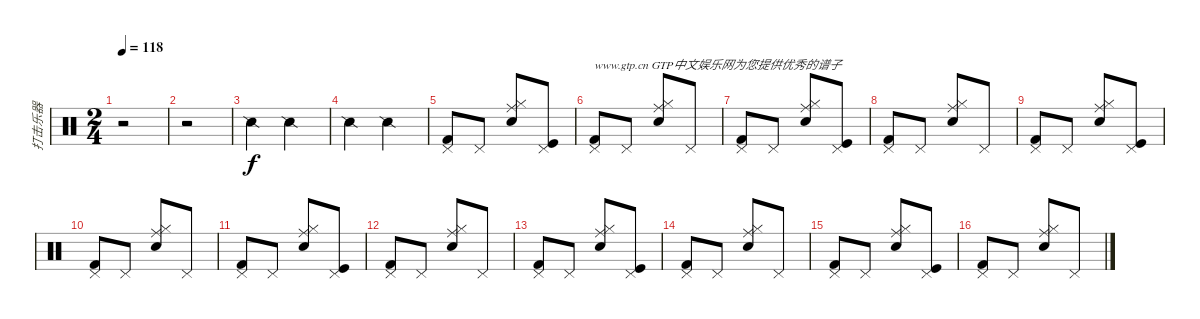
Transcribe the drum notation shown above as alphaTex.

\track ("打击乐器" "打击乐器") {instrument percussion}
\staff {score}
\articulation defaults
\ts (2 4)
\tempo 118
\clef neutral
\ks c
r.2{dy f} |
r.2 |
"Snare (side stick) 2".4 "Snare (side stick) 2".4 |
"Snare (side stick) 2".4 "Snare (side stick) 2".4 |
("Pedal Hi-Hat (hit)" "Kick (hit) 2").8 "Pedal Hi-Hat (hit)".8 ("Ride (middle)" "Hi-Hat (closed)" "Snare (hit) 2").8 ("Pedal Hi-Hat (hit)" "Kick (hit)").8 |
("Pedal Hi-Hat (hit)" "Kick (hit) 2").8{txt "www.gtp.cn GTP中文娱乐网为您提供优秀的谱子"} "Pedal Hi-Hat (hit)".8 ("Ride (middle)" "Hi-Hat (closed)" "Snare (hit) 2").8 "Pedal Hi-Hat (hit)".8 |
("Pedal Hi-Hat (hit)" "Kick (hit) 2").8 "Pedal Hi-Hat (hit)".8 ("Ride (middle)" "Hi-Hat (closed)" "Snare (hit) 2").8 ("Pedal Hi-Hat (hit)" "Kick (hit)").8 |
("Pedal Hi-Hat (hit)" "Kick (hit) 2").8 "Pedal Hi-Hat (hit)".8 ("Ride (middle)" "Hi-Hat (closed)" "Snare (hit) 2").8 "Pedal Hi-Hat (hit)".8 |
("Pedal Hi-Hat (hit)" "Kick (hit) 2").8 "Pedal Hi-Hat (hit)".8 ("Ride (middle)" "Hi-Hat (closed)" "Snare (hit) 2").8 ("Pedal Hi-Hat (hit)" "Kick (hit)").8 |
("Pedal Hi-Hat (hit)" "Kick (hit) 2").8 "Pedal Hi-Hat (hit)".8 ("Ride (middle)" "Hi-Hat (closed)" "Snare (hit) 2").8 "Pedal Hi-Hat (hit)".8 |
("Pedal Hi-Hat (hit)" "Kick (hit) 2").8 "Pedal Hi-Hat (hit)".8 ("Ride (middle)" "Hi-Hat (closed)" "Snare (hit) 2").8 ("Pedal Hi-Hat (hit)" "Kick (hit)").8 |
("Pedal Hi-Hat (hit)" "Kick (hit) 2").8 "Pedal Hi-Hat (hit)".8 ("Ride (middle)" "Hi-Hat (closed)" "Snare (hit) 2").8 "Pedal Hi-Hat (hit)".8 |
("Pedal Hi-Hat (hit)" "Kick (hit) 2").8 "Pedal Hi-Hat (hit)".8 ("Ride (middle)" "Hi-Hat (closed)" "Snare (hit) 2").8 ("Pedal Hi-Hat (hit)" "Kick (hit)").8 |
("Pedal Hi-Hat (hit)" "Kick (hit) 2").8 "Pedal Hi-Hat (hit)".8 ("Ride (middle)" "Hi-Hat (closed)" "Snare (hit) 2").8 "Pedal Hi-Hat (hit)".8 |
("Pedal Hi-Hat (hit)" "Kick (hit) 2").8 "Pedal Hi-Hat (hit)".8 ("Ride (middle)" "Hi-Hat (closed)" "Snare (hit) 2").8 ("Pedal Hi-Hat (hit)" "Kick (hit)").8 |
("Pedal Hi-Hat (hit)" "Kick (hit) 2").8 "Pedal Hi-Hat (hit)".8 ("Ride (middle)" "Hi-Hat (closed)" "Snare (hit) 2").8 "Pedal Hi-Hat (hit)".8
